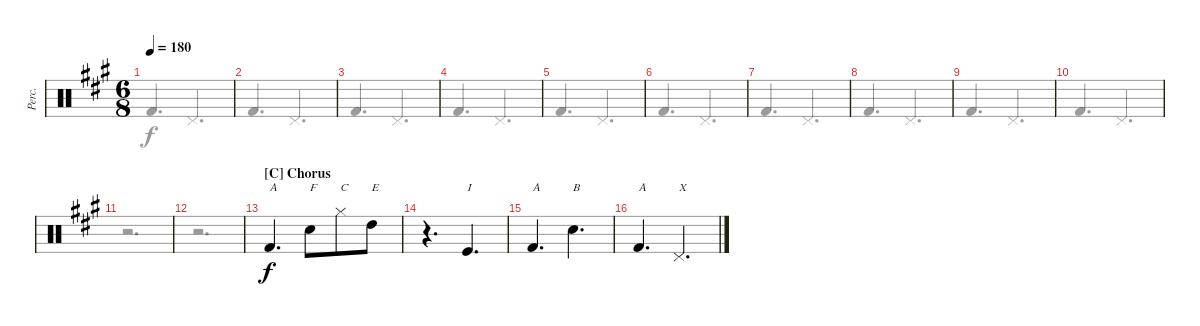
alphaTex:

\defaultSystemsLayout 4
\bracketExtendMode groupsimilarinstruments
\otherSystemsTrackNameOrientation horizontal
\track ("Percussions" "Perc.") {instrument percussion}
\staff {score}
\articulation defaults
\voice
\ts (6 8)
\tempo 180
\clef neutral
\ks f#minor
|
|
|
|
|
|
|
|
|
|
|
|
\section ("C" "Chorus")
"Kick (hit) 2"{acc forcenatural}.4{d txt "A" beam Up} "Snare (hit) 2"{acc forcenatural}.8{txt "F" beam Down} "Hi-Hat (closed)"{acc forcenatural}.8{txt "C" beam Down} "High Tom (hit)"{acc forcenatural}.8{txt "E" beam Down} |
r.4{d beam Down} "Kick (hit)"{acc forcenatural}.4{d txt "I" beam Up} |
"Kick (hit) 2"{acc forcenatural}.4{d txt "A" beam Up} "Snare (hit) 2"{acc forcenatural}.4{d txt "B" beam Down} |
"Kick (hit) 2"{acc forcenatural}.4{d txt "A" beam Up} "Pedal Hi-Hat (hit)"{acc forcenatural}.4{d txt "X" beam Up}
\voice
\clef neutral
\ottava regular
\simile none
\ks f#minor "Kick (hit) 2"{acc forcenatural}.4{d dy f beam Up} "Pedal Hi-Hat (hit)"{acc forcenatural}.4{d beam Up}
|
"Kick (hit) 2"{acc forcenatural}.4{d beam Up} "Pedal Hi-Hat (hit)"{acc forcenatural}.4{d beam Up} |
"Kick (hit) 2"{acc forcenatural}.4{d beam Up} "Pedal Hi-Hat (hit)"{acc forcenatural}.4{d beam Up} |
"Kick (hit) 2"{acc forcenatural}.4{d beam Up} "Pedal Hi-Hat (hit)"{acc forcenatural}.4{d beam Up} |
"Kick (hit) 2"{acc forcenatural}.4{d beam Up} "Pedal Hi-Hat (hit)"{acc forcenatural}.4{d beam Up} |
"Kick (hit) 2"{acc forcenatural}.4{d beam Up} "Pedal Hi-Hat (hit)"{acc forcenatural}.4{d beam Up} |
"Kick (hit) 2"{acc forcenatural}.4{d beam Up} "Pedal Hi-Hat (hit)"{acc forcenatural}.4{d beam Up} |
"Kick (hit) 2"{acc forcenatural}.4{d beam Up} "Pedal Hi-Hat (hit)"{acc forcenatural}.4{d beam Up} |
"Kick (hit) 2"{acc forcenatural}.4{d beam Up} "Pedal Hi-Hat (hit)"{acc forcenatural}.4{d beam Up} |
"Kick (hit) 2"{acc forcenatural}.4{d beam Up} "Pedal Hi-Hat (hit)"{acc forcenatural}.4{d beam Up} |
r.2{d beam Down} |
r.2{d beam Down} |
|
|
|
